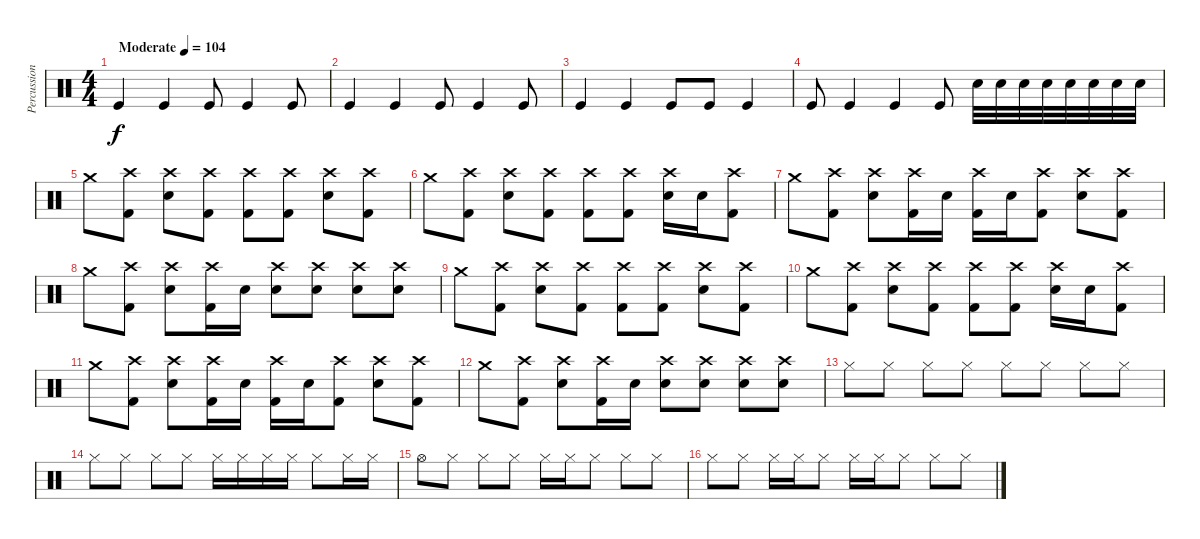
\track ("Percussion" "Percussion") {instrument percussion}
\staff {score}
\articulation defaults
\ts (4 4)
\tempo (104 "Moderate")
\clef neutral
\ks c "Kick (hit)".4{dy f} "Kick (hit)".4 "Kick (hit)".8 "Kick (hit)".4 "Kick (hit)".8
|
"Kick (hit)".4 "Kick (hit)".4 "Kick (hit)".8 "Kick (hit)".4 "Kick (hit)".8 |
"Kick (hit)".4 "Kick (hit)".4 "Kick (hit)".8 "Kick (hit)".8 "Kick (hit)".4 |
"Kick (hit)".8 "Kick (hit)".4 "Kick (hit)".4 "Kick (hit)".8 "Electric Snare (hit)".32 "Electric Snare (hit)".32 "Electric Snare (hit)".32 "Electric Snare (hit)".32 "Electric Snare (hit)".32 "Electric Snare (hit)".32 "Electric Snare (hit)".32 "Electric Snare (hit)".32 |
"Crash medium (hit)".8 ("Crash high (hit)" "Kick (hit) 2").8 ("Crash high (hit)" "Electric Snare (hit)").8 ("Crash high (hit)" "Kick (hit) 2").8 ("Crash high (hit)" "Kick (hit) 2").8 ("Crash high (hit)" "Kick (hit) 2").8 ("Crash high (hit)" "Electric Snare (hit)").8 ("Crash high (hit)" "Kick (hit) 2").8 |
"Crash medium (hit)".8 ("Crash high (hit)" "Kick (hit) 2").8 ("Crash high (hit)" "Electric Snare (hit)").8 ("Crash high (hit)" "Kick (hit) 2").8 ("Crash high (hit)" "Kick (hit) 2").8 ("Crash high (hit)" "Kick (hit) 2").8 ("Crash high (hit)" "Electric Snare (hit)").16 "Electric Snare (hit)".16 ("Crash high (hit)" "Kick (hit) 2").8 |
"Crash medium (hit)".8 ("Crash high (hit)" "Kick (hit) 2").8 ("Crash high (hit)" "Electric Snare (hit)").8 ("Crash high (hit)" "Kick (hit) 2").16 "Electric Snare (hit)".16 ("Crash high (hit)" "Kick (hit) 2").16 "Electric Snare (hit)".16 ("Crash high (hit)" "Kick (hit) 2").8 ("Crash high (hit)" "Electric Snare (hit)").8 ("Crash high (hit)" "Kick (hit) 2").8 |
"Crash medium (hit)".8 ("Crash high (hit)" "Kick (hit) 2").8 ("Crash high (hit)" "Electric Snare (hit)").8 ("Crash high (hit)" "Kick (hit) 2").16 "Electric Snare (hit)".16 ("Crash high (hit)" "Electric Snare (hit)").8 ("Crash high (hit)" "Electric Snare (hit)").8 ("Crash high (hit)" "Electric Snare (hit)").8 ("Crash high (hit)" "Electric Snare (hit)").8 |
"Crash medium (hit)".8 ("Crash high (hit)" "Kick (hit) 2").8 ("Crash high (hit)" "Electric Snare (hit)").8 ("Crash high (hit)" "Kick (hit) 2").8 ("Crash high (hit)" "Kick (hit) 2").8 ("Crash high (hit)" "Kick (hit) 2").8 ("Crash high (hit)" "Electric Snare (hit)").8 ("Crash high (hit)" "Kick (hit) 2").8 |
"Crash medium (hit)".8 ("Crash high (hit)" "Kick (hit) 2").8 ("Crash high (hit)" "Electric Snare (hit)").8 ("Crash high (hit)" "Kick (hit) 2").8 ("Crash high (hit)" "Kick (hit) 2").8 ("Crash high (hit)" "Kick (hit) 2").8 ("Crash high (hit)" "Electric Snare (hit)").16 "Electric Snare (hit)".16 ("Crash high (hit)" "Kick (hit) 2").8 |
"Crash medium (hit)".8 ("Crash high (hit)" "Kick (hit) 2").8 ("Crash high (hit)" "Electric Snare (hit)").8 ("Crash high (hit)" "Kick (hit) 2").16 "Electric Snare (hit)".16 ("Crash high (hit)" "Kick (hit) 2").16 "Electric Snare (hit)".16 ("Crash high (hit)" "Kick (hit) 2").8 ("Crash high (hit)" "Electric Snare (hit)").8 ("Crash high (hit)" "Kick (hit) 2").8 |
"Crash medium (hit)".8 ("Crash high (hit)" "Kick (hit) 2").8 ("Crash high (hit)" "Electric Snare (hit)").8 ("Crash high (hit)" "Kick (hit) 2").16 "Electric Snare (hit)".16 ("Crash high (hit)" "Electric Snare (hit)").8 ("Crash high (hit)" "Electric Snare (hit)").8 ("Crash high (hit)" "Electric Snare (hit)").8 ("Crash high (hit)" "Electric Snare (hit)").8 |
"Hi-Hat (closed)".8 "Hi-Hat (closed)".8 "Hi-Hat (closed)".8 "Hi-Hat (closed)".8 "Hi-Hat (closed)".8 "Hi-Hat (closed)".8 "Hi-Hat (closed)".8 "Hi-Hat (closed)".8 |
"Hi-Hat (closed)".8 "Hi-Hat (closed)".8 "Hi-Hat (closed)".8 "Hi-Hat (closed)".8 "Hi-Hat (closed)".16 "Hi-Hat (closed)".16 "Hi-Hat (closed)".16 "Hi-Hat (closed)".16 "Hi-Hat (closed)".8 "Hi-Hat (closed)".16 "Hi-Hat (closed)".16 |
"Hi-Hat (open)".8 "Hi-Hat (closed)".8 "Hi-Hat (closed)".8 "Hi-Hat (closed)".8 "Hi-Hat (closed)".16 "Hi-Hat (closed)".16 "Hi-Hat (closed)".8 "Hi-Hat (closed)".8 "Hi-Hat (closed)".8 |
"Hi-Hat (closed)".8 "Hi-Hat (closed)".8 "Hi-Hat (closed)".16 "Hi-Hat (closed)".16 "Hi-Hat (closed)".8 "Hi-Hat (closed)".16 "Hi-Hat (closed)".16 "Hi-Hat (closed)".8 "Hi-Hat (closed)".8 "Hi-Hat (closed)".8
